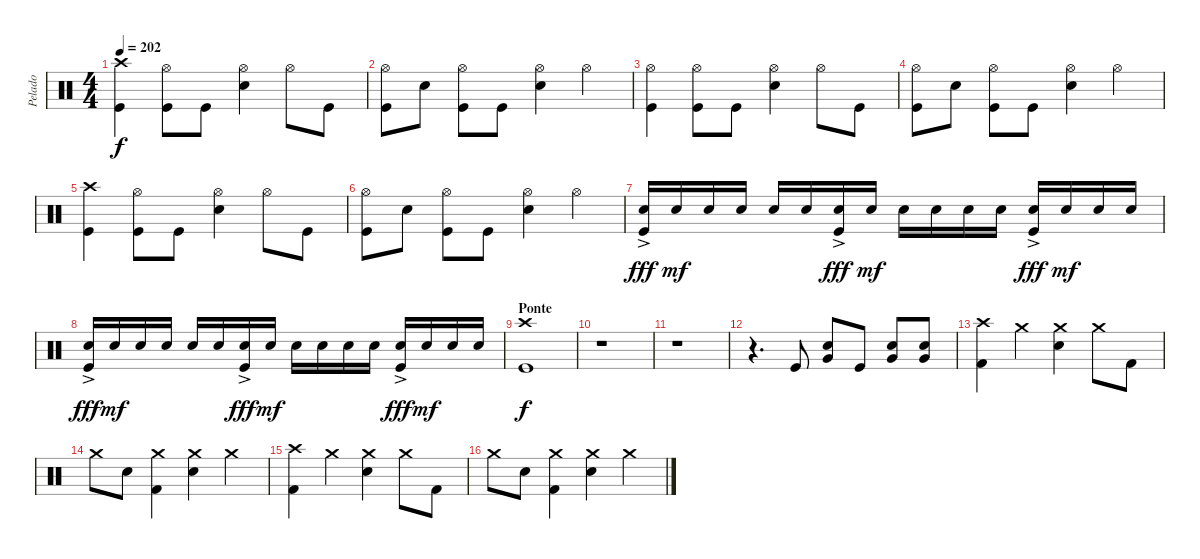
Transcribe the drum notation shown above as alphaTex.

\track ("Pelado" "Pelado") {instrument percussion}
\staff {score}
\articulation defaults
\ts (4 4)
\tempo 202
\clef neutral
\ks c
("Crash high (hit)" "Kick (hit)").4{dy f} ("Hi-Hat (open)" "Kick (hit)").8 "Kick (hit)".8 ("Hi-Hat (open)" "Electric Snare (hit)").4 "Hi-Hat (open)".8 "Kick (hit)".8 |
("Hi-Hat (open)" "Kick (hit)").8 "Electric Snare (hit)".8 ("Hi-Hat (open)" "Kick (hit)").8 "Kick (hit)".8 ("Hi-Hat (open)" "Electric Snare (hit)").4 "Hi-Hat (open)".4 |
("Hi-Hat (open)" "Kick (hit)").4 ("Hi-Hat (open)" "Kick (hit)").8 "Kick (hit)".8 ("Hi-Hat (open)" "Electric Snare (hit)").4 "Hi-Hat (open)".8 "Kick (hit)".8 |
("Hi-Hat (open)" "Kick (hit)").8 "Electric Snare (hit)".8 ("Hi-Hat (open)" "Kick (hit)").8 "Kick (hit)".8 ("Hi-Hat (open)" "Electric Snare (hit)").4 "Hi-Hat (open)".4 |
("Crash high (hit)" "Kick (hit)").4 ("Hi-Hat (open)" "Kick (hit)").8 "Kick (hit)".8 ("Hi-Hat (open)" "Electric Snare (hit)").4 "Hi-Hat (open)".8 "Kick (hit)".8 |
("Hi-Hat (open)" "Kick (hit)").8 "Electric Snare (hit)".8 ("Hi-Hat (open)" "Kick (hit)").8 "Kick (hit)".8 ("Hi-Hat (open)" "Electric Snare (hit)").4 "Hi-Hat (open)".4 |
("Electric Snare (hit)"{ac} "Kick (hit)").16{dy fff} "Electric Snare (hit)".16{dy mf} "Electric Snare (hit)".16 "Electric Snare (hit)".16 "Electric Snare (hit)".16 "Electric Snare (hit)".16 ("Electric Snare (hit)"{ac} "Kick (hit)").16{dy fff} "Electric Snare (hit)".16{dy mf} "Electric Snare (hit)".16 "Electric Snare (hit)".16 "Electric Snare (hit)".16 "Electric Snare (hit)".16 ("Electric Snare (hit)"{ac} "Kick (hit)").16{dy fff} "Electric Snare (hit)".16{dy mf} "Electric Snare (hit)".16 "Electric Snare (hit)".16 |
("Electric Snare (hit)"{ac} "Kick (hit)").16{dy fff} "Electric Snare (hit)".16{dy mf} "Electric Snare (hit)".16 "Electric Snare (hit)".16 "Electric Snare (hit)".16 "Electric Snare (hit)".16 ("Electric Snare (hit)"{ac} "Kick (hit)").16{dy fff} "Electric Snare (hit)".16{dy mf} "Electric Snare (hit)".16 "Electric Snare (hit)".16 "Electric Snare (hit)".16 "Electric Snare (hit)".16 ("Electric Snare (hit)"{ac} "Kick (hit)").16{dy fff} "Electric Snare (hit)".16{dy mf} "Electric Snare (hit)".16 "Electric Snare (hit)".16 |
\section ("" "Ponte")
("Crash high (hit)" "Kick (hit)").1{dy f} |
r.1 |
r.1 |
r.4{d} "Kick (hit)".8 ("Very Low Tom (hit)" "Electric Snare (hit)").8 "Kick (hit)".8 ("Very Low Tom (hit)" "Electric Snare (hit)").8 ("Very Low Tom (hit)" "Electric Snare (hit)").8 |
("Crash high (hit)" "Kick (hit) 2").4 "Crash medium (hit)".4 ("Crash medium (hit)" "Electric Snare (hit)").4 "Crash medium (hit)".8 "Kick (hit) 2".8 |
"Crash medium (hit)".8 "Electric Snare (hit)".8 ("Crash medium (hit)" "Kick (hit) 2").4 ("Crash medium (hit)" "Electric Snare (hit)").4 "Crash medium (hit)".4 |
("Crash high (hit)" "Kick (hit) 2").4 "Crash medium (hit)".4 ("Crash medium (hit)" "Electric Snare (hit)").4 "Crash medium (hit)".8 "Kick (hit) 2".8 |
"Crash medium (hit)".8 "Electric Snare (hit)".8 ("Crash medium (hit)" "Kick (hit) 2").4 ("Crash medium (hit)" "Electric Snare (hit)").4 "Crash medium (hit)".4
